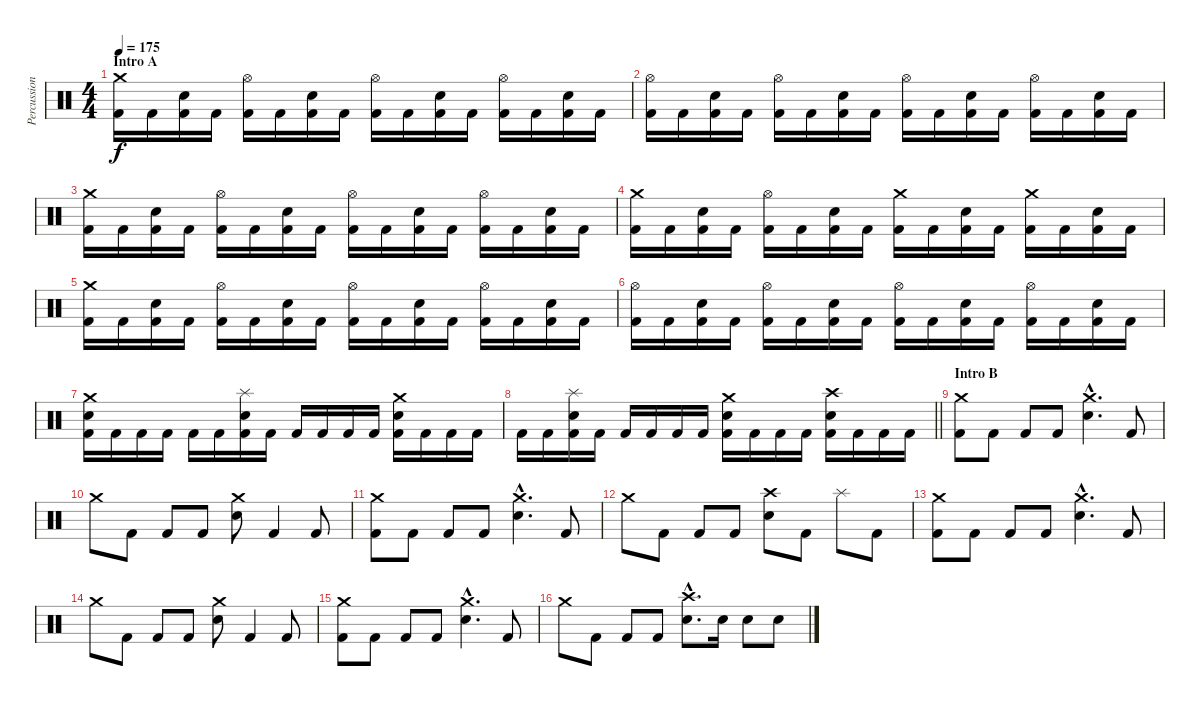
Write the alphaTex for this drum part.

\track ("Percussion" "Percussion") {instrument percussion}
\staff {score}
\articulation defaults
\ts (4 4)
\section ("" "Intro A")
\tempo 175
\clef neutral
\ks c
("Crash medium (hit)" "Kick (hit) 2").16{dy f} "Kick (hit) 2".16 ("Electric Snare (hit)" "Kick (hit) 2").16 "Kick (hit) 2".16 ("Hi-Hat (open)" "Kick (hit) 2").16 "Kick (hit) 2".16 ("Electric Snare (hit)" "Kick (hit) 2").16 "Kick (hit) 2".16 ("Hi-Hat (open)" "Kick (hit) 2").16 "Kick (hit) 2".16 ("Electric Snare (hit)" "Kick (hit) 2").16 "Kick (hit) 2".16 ("Hi-Hat (open)" "Kick (hit) 2").16 "Kick (hit) 2".16 ("Electric Snare (hit)" "Kick (hit) 2").16 "Kick (hit) 2".16 |
("Hi-Hat (open)" "Kick (hit) 2").16 "Kick (hit) 2".16 ("Electric Snare (hit)" "Kick (hit) 2").16 "Kick (hit) 2".16 ("Hi-Hat (open)" "Kick (hit) 2").16 "Kick (hit) 2".16 ("Electric Snare (hit)" "Kick (hit) 2").16 "Kick (hit) 2".16 ("Hi-Hat (open)" "Kick (hit) 2").16 "Kick (hit) 2".16 ("Electric Snare (hit)" "Kick (hit) 2").16 "Kick (hit) 2".16 ("Hi-Hat (open)" "Kick (hit) 2").16 "Kick (hit) 2".16 ("Electric Snare (hit)" "Kick (hit) 2").16 "Kick (hit) 2".16 |
("Crash medium (hit)" "Kick (hit) 2").16 "Kick (hit) 2".16 ("Electric Snare (hit)" "Kick (hit) 2").16 "Kick (hit) 2".16 ("Hi-Hat (open)" "Kick (hit) 2").16 "Kick (hit) 2".16 ("Electric Snare (hit)" "Kick (hit) 2").16 "Kick (hit) 2".16 ("Hi-Hat (open)" "Kick (hit) 2").16 "Kick (hit) 2".16 ("Electric Snare (hit)" "Kick (hit) 2").16 "Kick (hit) 2".16 ("Hi-Hat (open)" "Kick (hit) 2").16 "Kick (hit) 2".16 ("Electric Snare (hit)" "Kick (hit) 2").16 "Kick (hit) 2".16 |
("Crash medium (hit)" "Kick (hit) 2").16 "Kick (hit) 2".16 ("Electric Snare (hit)" "Kick (hit) 2").16 "Kick (hit) 2".16 ("Hi-Hat (open)" "Kick (hit) 2").16 "Kick (hit) 2".16 ("Electric Snare (hit)" "Kick (hit) 2").16 "Kick (hit) 2".16 ("Crash medium (hit)" "Kick (hit) 2").16 "Kick (hit) 2".16 ("Electric Snare (hit)" "Kick (hit) 2").16 "Kick (hit) 2".16 ("Crash medium (hit)" "Kick (hit) 2").16 "Kick (hit) 2".16 ("Electric Snare (hit)" "Kick (hit) 2").16 "Kick (hit) 2".16 |
("Crash medium (hit)" "Kick (hit) 2").16 "Kick (hit) 2".16 ("Electric Snare (hit)" "Kick (hit) 2").16 "Kick (hit) 2".16 ("Hi-Hat (open)" "Kick (hit) 2").16 "Kick (hit) 2".16 ("Electric Snare (hit)" "Kick (hit) 2").16 "Kick (hit) 2".16 ("Hi-Hat (open)" "Kick (hit) 2").16 "Kick (hit) 2".16 ("Electric Snare (hit)" "Kick (hit) 2").16 "Kick (hit) 2".16 ("Hi-Hat (open)" "Kick (hit) 2").16 "Kick (hit) 2".16 ("Electric Snare (hit)" "Kick (hit) 2").16 "Kick (hit) 2".16 |
("Hi-Hat (open)" "Kick (hit) 2").16 "Kick (hit) 2".16 ("Electric Snare (hit)" "Kick (hit) 2").16 "Kick (hit) 2".16 ("Hi-Hat (open)" "Kick (hit) 2").16 "Kick (hit) 2".16 ("Electric Snare (hit)" "Kick (hit) 2").16 "Kick (hit) 2".16 ("Hi-Hat (open)" "Kick (hit) 2").16 "Kick (hit) 2".16 ("Electric Snare (hit)" "Kick (hit) 2").16 "Kick (hit) 2".16 ("Hi-Hat (open)" "Kick (hit) 2").16 "Kick (hit) 2".16 ("Electric Snare (hit)" "Kick (hit) 2").16 "Kick (hit) 2".16 |
("Crash medium (hit)" "Electric Snare (hit)" "Kick (hit) 2").16 "Kick (hit) 2".16 "Kick (hit) 2".16 "Kick (hit) 2".16 "Kick (hit) 2".16 "Kick (hit) 2".16 ("Splash (hit)" "Electric Snare (hit)" "Kick (hit) 2").16 "Kick (hit) 2".16 "Kick (hit) 2".16 "Kick (hit) 2".16 "Kick (hit) 2".16 "Kick (hit) 2".16 ("Crash medium (hit)" "Electric Snare (hit)" "Kick (hit) 2").16 "Kick (hit) 2".16 "Kick (hit) 2".16 "Kick (hit) 2".16 |
\barLineRight lightlight "Kick (hit) 2".16 "Kick (hit) 2".16
("Splash (hit)" "Electric Snare (hit)" "Kick (hit) 2").16 "Kick (hit) 2".16 "Kick (hit) 2".16 "Kick (hit) 2".16 "Kick (hit) 2".16 "Kick (hit) 2".16 ("Crash medium (hit)" "Electric Snare (hit)" "Kick (hit) 2").16 "Kick (hit) 2".16 "Kick (hit) 2".16 "Kick (hit) 2".16 ("Crash high (hit)" "Electric Snare (hit)" "Kick (hit) 2").16 "Kick (hit) 2".16 "Kick (hit) 2".16 "Kick (hit) 2".16 |
\section ("" "Intro B")
("Crash medium (hit)" "Kick (hit) 2").8 "Kick (hit) 2".8 "Kick (hit) 2".8 "Kick (hit) 2".8 ("Crash medium (hit)"{hac} "Electric Snare (hit)"{hac}).4{d} "Kick (hit) 2".8 |
"Crash medium (hit)".8 "Kick (hit) 2".8 "Kick (hit) 2".8 "Kick (hit) 2".8 ("Crash medium (hit)" "Electric Snare (hit)").8 "Kick (hit) 2".4 "Kick (hit) 2".8 |
("Crash medium (hit)" "Kick (hit) 2").8 "Kick (hit) 2".8 "Kick (hit) 2".8 "Kick (hit) 2".8 ("Crash medium (hit)"{hac} "Electric Snare (hit)"{hac}).4{d} "Kick (hit) 2".8 |
"Crash medium (hit)".8 "Kick (hit) 2".8 "Kick (hit) 2".8 "Kick (hit) 2".8 ("Crash high (hit)" "Electric Snare (hit)").8 "Kick (hit) 2".8 "Splash (hit)".8 "Kick (hit) 2".8 |
("Crash medium (hit)" "Kick (hit) 2").8 "Kick (hit) 2".8 "Kick (hit) 2".8 "Kick (hit) 2".8 ("Crash medium (hit)"{hac} "Electric Snare (hit)"{hac}).4{d} "Kick (hit) 2".8 |
"Crash medium (hit)".8 "Kick (hit) 2".8 "Kick (hit) 2".8 "Kick (hit) 2".8 ("Crash medium (hit)" "Electric Snare (hit)").8 "Kick (hit) 2".4 "Kick (hit) 2".8 |
("Crash medium (hit)" "Kick (hit) 2").8 "Kick (hit) 2".8 "Kick (hit) 2".8 "Kick (hit) 2".8 ("Crash medium (hit)"{hac} "Electric Snare (hit)"{hac}).4{d} "Kick (hit) 2".8 |
"Crash medium (hit)".8 "Kick (hit) 2".8 "Kick (hit) 2".8 "Kick (hit) 2".8 ("Crash high (hit)"{hac} "Electric Snare (hit)"{hac}).8{d} "Electric Snare (hit)".16 "Electric Snare (hit)".8 "Electric Snare (hit)".8
